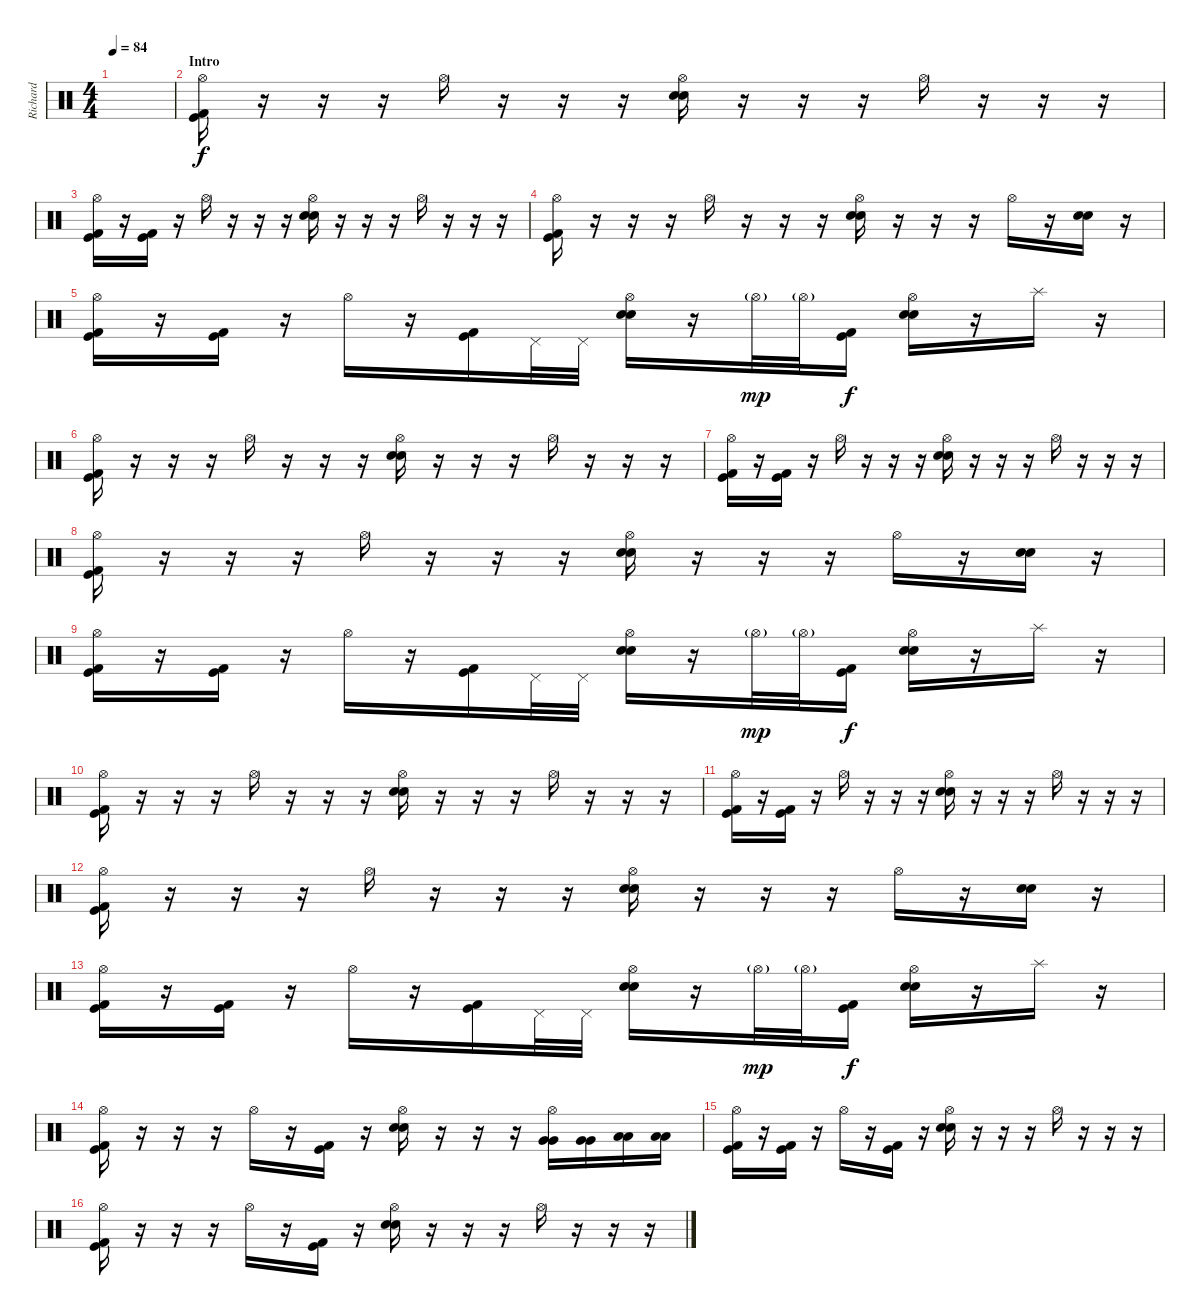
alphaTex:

\track ("Richard" "Richard") {instrument percussion}
\staff {score}
\articulation defaults
\ts (4 4)
\tempo 84
\clef neutral
\ks c
|
\section ("" "Intro")
("Hi-Hat (open)" "Kick (hit) 2" "Kick (hit)").16 r.16 r.16 r.16 "Hi-Hat (open)".16 r.16 r.16 r.16 ("Hi-Hat (open)" "Snare (hit) 2" "Electric Snare (hit)").16 r.16 r.16 r.16 "Hi-Hat (open)".16 r.16 r.16 r.16 |
("Hi-Hat (open)" "Kick (hit) 2" "Kick (hit)").16 r.16 ("Kick (hit) 2" "Kick (hit)").16 r.16 "Hi-Hat (open)".16 r.16 r.16 r.16 ("Hi-Hat (open)" "Snare (hit) 2" "Electric Snare (hit)").16 r.16 r.16 r.16 "Hi-Hat (open)".16 r.16 r.16 r.16 |
("Hi-Hat (open)" "Kick (hit) 2" "Kick (hit)").16 r.16 r.16 r.16 "Hi-Hat (open)".16 r.16 r.16 r.16 ("Hi-Hat (open)" "Snare (hit) 2" "Electric Snare (hit)").16 r.16 r.16 r.16 "Hi-Hat (open)".16 r.16 ("Snare (hit) 2" "Electric Snare (hit)").16 r.16 |
("Hi-Hat (open)" "Kick (hit) 2" "Kick (hit)").16 r.16 ("Kick (hit) 2" "Kick (hit)").16 r.16 "Hi-Hat (open)".16 r.16 ("Kick (hit) 2" "Kick (hit)").16 "Pedal Hi-Hat (hit)".32 "Pedal Hi-Hat (hit)".32 ("Hi-Hat (open)" "Snare (hit) 2" "Electric Snare (hit)").16 r.16 "Hi-Hat (open)"{g}.32{dy mp} "Hi-Hat (open)"{g}.32 ("Kick (hit) 2" "Kick (hit)").16{dy f} ("Hi-Hat (open)" "Snare (hit) 2" "Electric Snare (hit)").16 r.16 "Splash (hit)".16 r.16 |
("Hi-Hat (open)" "Kick (hit) 2" "Kick (hit)").16 r.16 r.16 r.16 "Hi-Hat (open)".16 r.16 r.16 r.16 ("Hi-Hat (open)" "Snare (hit) 2" "Electric Snare (hit)").16 r.16 r.16 r.16 "Hi-Hat (open)".16 r.16 r.16 r.16 |
("Hi-Hat (open)" "Kick (hit) 2" "Kick (hit)").16 r.16 ("Kick (hit) 2" "Kick (hit)").16 r.16 "Hi-Hat (open)".16 r.16 r.16 r.16 ("Hi-Hat (open)" "Snare (hit) 2" "Electric Snare (hit)").16 r.16 r.16 r.16 "Hi-Hat (open)".16 r.16 r.16 r.16 |
("Hi-Hat (open)" "Kick (hit) 2" "Kick (hit)").16 r.16 r.16 r.16 "Hi-Hat (open)".16 r.16 r.16 r.16 ("Hi-Hat (open)" "Snare (hit) 2" "Electric Snare (hit)").16 r.16 r.16 r.16 "Hi-Hat (open)".16 r.16 ("Snare (hit) 2" "Electric Snare (hit)").16 r.16 |
("Hi-Hat (open)" "Kick (hit) 2" "Kick (hit)").16 r.16 ("Kick (hit) 2" "Kick (hit)").16 r.16 "Hi-Hat (open)".16 r.16 ("Kick (hit) 2" "Kick (hit)").16 "Pedal Hi-Hat (hit)".32 "Pedal Hi-Hat (hit)".32 ("Hi-Hat (open)" "Snare (hit) 2" "Electric Snare (hit)").16 r.16 "Hi-Hat (open)"{g}.32{dy mp} "Hi-Hat (open)"{g}.32 ("Kick (hit) 2" "Kick (hit)").16{dy f} ("Hi-Hat (open)" "Snare (hit) 2" "Electric Snare (hit)").16 r.16 "Splash (hit)".16 r.16 |
("Hi-Hat (open)" "Kick (hit) 2" "Kick (hit)").16 r.16 r.16 r.16 "Hi-Hat (open)".16 r.16 r.16 r.16 ("Hi-Hat (open)" "Snare (hit) 2" "Electric Snare (hit)").16 r.16 r.16 r.16 "Hi-Hat (open)".16 r.16 r.16 r.16 |
("Hi-Hat (open)" "Kick (hit) 2" "Kick (hit)").16 r.16 ("Kick (hit) 2" "Kick (hit)").16 r.16 "Hi-Hat (open)".16 r.16 r.16 r.16 ("Hi-Hat (open)" "Snare (hit) 2" "Electric Snare (hit)").16 r.16 r.16 r.16 "Hi-Hat (open)".16 r.16 r.16 r.16 |
("Hi-Hat (open)" "Kick (hit) 2" "Kick (hit)").16 r.16 r.16 r.16 "Hi-Hat (open)".16 r.16 r.16 r.16 ("Hi-Hat (open)" "Snare (hit) 2" "Electric Snare (hit)").16 r.16 r.16 r.16 "Hi-Hat (open)".16 r.16 ("Snare (hit) 2" "Electric Snare (hit)").16 r.16 |
("Hi-Hat (open)" "Kick (hit) 2" "Kick (hit)").16 r.16 ("Kick (hit) 2" "Kick (hit)").16 r.16 "Hi-Hat (open)".16 r.16 ("Kick (hit) 2" "Kick (hit)").16 "Pedal Hi-Hat (hit)".32 "Pedal Hi-Hat (hit)".32 ("Hi-Hat (open)" "Snare (hit) 2" "Electric Snare (hit)").16 r.16 "Hi-Hat (open)"{g}.32{dy mp} "Hi-Hat (open)"{g}.32 ("Kick (hit) 2" "Kick (hit)").16{dy f} ("Hi-Hat (open)" "Snare (hit) 2" "Electric Snare (hit)").16 r.16 "Splash (hit)".16 r.16 |
("Hi-Hat (open)" "Kick (hit) 2" "Kick (hit)").16 r.16 r.16 r.16 "Hi-Hat (open)".16 r.16 ("Kick (hit) 2" "Kick (hit)").16 r.16 ("Hi-Hat (open)" "Snare (hit) 2" "Electric Snare (hit)").16 r.16 r.16 r.16 ("Hi-Hat (open)" "Very Low Tom (hit)" "Very Low Tom (hit)").16 ("Very Low Tom (hit)" "Very Low Tom (hit)").16 ("Low Floor Tom (hit)" "Low Floor Tom (hit)").16 ("Low Floor Tom (hit)" "Low Floor Tom (hit)").16 |
("Hi-Hat (open)" "Kick (hit) 2" "Kick (hit)").16 r.16 ("Kick (hit) 2" "Kick (hit)").16 r.16 "Hi-Hat (open)".16 r.16 ("Kick (hit) 2" "Kick (hit)").16 r.16 ("Hi-Hat (open)" "Snare (hit) 2" "Electric Snare (hit)").16 r.16 r.16 r.16 "Hi-Hat (open)".16 r.16 r.16 r.16 |
("Hi-Hat (open)" "Kick (hit) 2" "Kick (hit)").16 r.16 r.16 r.16 "Hi-Hat (open)".16 r.16 ("Kick (hit)" "Kick (hit) 2").16 r.16 ("Hi-Hat (open)" "Snare (hit) 2" "Electric Snare (hit)").16 r.16 r.16 r.16 "Hi-Hat (open)".16 r.16 r.16 r.16
